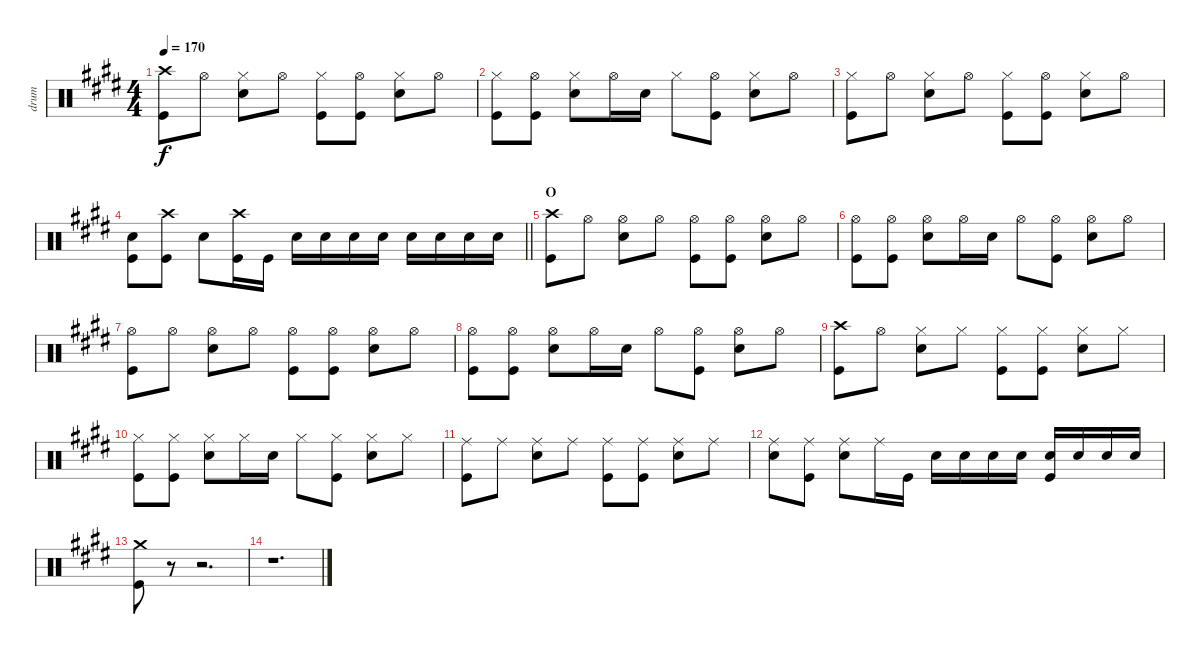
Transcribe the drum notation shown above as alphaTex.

\track ("drum" "drum") {instrument percussion}
\staff {score}
\articulation defaults
\ts (4 4)
\tempo 170
\clef neutral
\ks e
("Crash high (hit)" "Kick (hit)").8{dy f} "Hi-Hat (open)".8 ("Hi-Hat (closed)" "Snare (hit) 2").8 "Hi-Hat (open)".8 ("Hi-Hat (closed)" "Kick (hit)").8 ("Hi-Hat (open)" "Kick (hit)").8 ("Hi-Hat (closed)" "Snare (hit) 2").8 "Hi-Hat (open)".8 |
("Hi-Hat (closed)" "Kick (hit)").8 ("Hi-Hat (open)" "Kick (hit)").8 ("Hi-Hat (closed)" "Snare (hit) 2").8 "Hi-Hat (open)".16 "Snare (hit) 2".16 "Hi-Hat (closed)".8 ("Hi-Hat (open)" "Kick (hit)").8 ("Hi-Hat (closed)" "Snare (hit) 2").8 "Hi-Hat (open)".8 |
("Hi-Hat (closed)" "Kick (hit)").8 "Hi-Hat (open)".8 ("Hi-Hat (closed)" "Snare (hit) 2").8 "Hi-Hat (open)".8 ("Hi-Hat (closed)" "Kick (hit)").8 ("Hi-Hat (open)" "Kick (hit)").8 ("Hi-Hat (closed)" "Snare (hit) 2").8 "Hi-Hat (open)".8 |
\barLineRight lightlight
("Snare (hit) 2" "Kick (hit)").8 ("Crash high (hit)" "Kick (hit)").8 "Snare (hit) 2".8 ("Crash high (hit)" "Kick (hit)").16 "Kick (hit)".16 "Snare (hit) 2".16 "Snare (hit) 2".16 "Snare (hit) 2".16 "Snare (hit) 2".16 "Snare (hit) 2".16 "Snare (hit) 2".16 "Snare (hit) 2".16 "Snare (hit) 2".16 |
\section ("" "O")
("Crash high (hit)" "Kick (hit)").8 "Hi-Hat (open)".8 ("Hi-Hat (open)" "Snare (hit) 2").8 "Hi-Hat (open)".8 ("Hi-Hat (open)" "Kick (hit)").8 ("Hi-Hat (open)" "Kick (hit)").8 ("Hi-Hat (open)" "Snare (hit) 2").8 "Hi-Hat (open)".8 |
("Hi-Hat (open)" "Kick (hit)").8 ("Hi-Hat (open)" "Kick (hit)").8 ("Hi-Hat (open)" "Snare (hit) 2").8 "Hi-Hat (open)".16 "Snare (hit) 2".16 "Hi-Hat (open)".8 ("Hi-Hat (open)" "Kick (hit)").8 ("Hi-Hat (open)" "Snare (hit) 2").8 "Hi-Hat (open)".8 |
("Hi-Hat (open)" "Kick (hit)").8 "Hi-Hat (open)".8 ("Hi-Hat (open)" "Snare (hit) 2").8 "Hi-Hat (open)".8 ("Hi-Hat (open)" "Kick (hit)").8 ("Hi-Hat (open)" "Kick (hit)").8 ("Hi-Hat (open)" "Snare (hit) 2").8 "Hi-Hat (open)".8 |
("Hi-Hat (open)" "Kick (hit)").8 ("Hi-Hat (open)" "Kick (hit)").8 ("Hi-Hat (open)" "Snare (hit) 2").8 "Hi-Hat (open)".16 "Snare (hit) 2".16 "Hi-Hat (open)".8 ("Hi-Hat (open)" "Kick (hit)").8 ("Hi-Hat (open)" "Snare (hit) 2").8 "Hi-Hat (open)".8 |
("Crash high (hit)" "Kick (hit)").8 "Hi-Hat (open)".8 ("Hi-Hat (closed)" "Snare (hit) 2").8 "Hi-Hat (closed)".8 ("Hi-Hat (closed)" "Kick (hit)").8 ("Hi-Hat (closed)" "Kick (hit)").8 ("Hi-Hat (closed)" "Snare (hit) 2").8 "Hi-Hat (closed)".8 |
("Hi-Hat (closed)" "Kick (hit)").8 ("Hi-Hat (closed)" "Kick (hit)").8 ("Hi-Hat (closed)" "Snare (hit) 2").8 "Hi-Hat (closed)".16 "Snare (hit) 2".16 "Hi-Hat (closed)".8 ("Hi-Hat (closed)" "Kick (hit)").8 ("Hi-Hat (closed)" "Snare (hit) 2").8 "Hi-Hat (closed)".8 |
("Ride (middle)" "Kick (hit)").8 "Ride (middle)".8 ("Ride (middle)" "Snare (hit) 2").8 "Ride (middle)".8 ("Ride (middle)" "Kick (hit)").8 ("Ride (middle)" "Kick (hit)").8 ("Ride (middle)" "Snare (hit) 2").8 "Ride (middle)".8 |
("Ride (middle)" "Snare (hit) 2").8 ("Ride (middle)" "Kick (hit)").8 ("Ride (middle)" "Snare (hit) 2").8 "Ride (middle)".16 "Kick (hit)".16 "Snare (hit) 2".16 "Snare (hit) 2".16 "Snare (hit) 2".16 "Snare (hit) 2".16 ("Snare (hit) 2" "Kick (hit)").16 "Snare (hit) 2".16 "Snare (hit) 2".16 "Snare (hit) 2".16 |
("Crash medium (hit)" "Kick (hit)").8 r.8 r.2{d} |
r.1{d}
